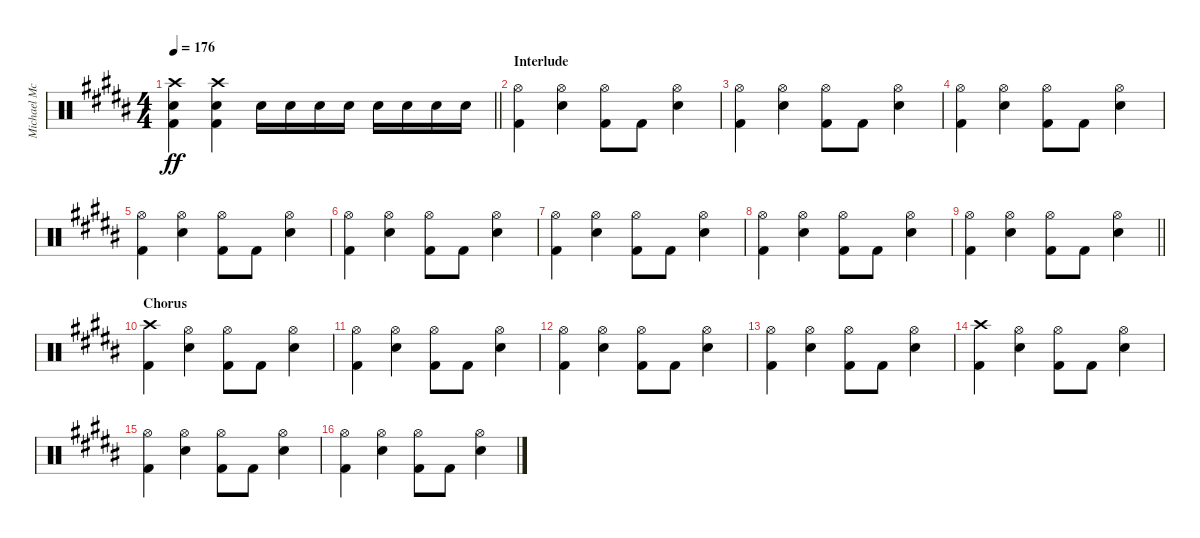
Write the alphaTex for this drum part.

\track ("Michael McDermott - Drums" "Michael Mc") {instrument percussion}
\staff {score}
\articulation defaults
\ts (4 4)
\tempo 176
\clef neutral
\barLineRight lightlight
\ks b
("Crash high (hit)" "Snare (hit) 2" "Kick (hit) 2").4{dy ff} ("Crash high (hit)" "Snare (hit) 2" "Kick (hit) 2").4 "Snare (hit) 2".16 "Snare (hit) 2".16 "Snare (hit) 2".16 "Snare (hit) 2".16 "Snare (hit) 2".16 "Snare (hit) 2".16 "Snare (hit) 2".16 "Snare (hit) 2".16 |
\section ("" "Interlude")
("Hi-Hat (open)" "Kick (hit) 2").4 ("Snare (hit) 2" "Hi-Hat (open)").4 ("Hi-Hat (open)" "Kick (hit) 2").8 "Kick (hit) 2".8 ("Snare (hit) 2" "Hi-Hat (open)").4 |
("Hi-Hat (open)" "Kick (hit) 2").4 ("Snare (hit) 2" "Hi-Hat (open)").4 ("Hi-Hat (open)" "Kick (hit) 2").8 "Kick (hit) 2".8 ("Snare (hit) 2" "Hi-Hat (open)").4 |
("Hi-Hat (open)" "Kick (hit) 2").4 ("Snare (hit) 2" "Hi-Hat (open)").4 ("Hi-Hat (open)" "Kick (hit) 2").8 "Kick (hit) 2".8 ("Snare (hit) 2" "Hi-Hat (open)").4 |
("Hi-Hat (open)" "Kick (hit) 2").4 ("Snare (hit) 2" "Hi-Hat (open)").4 ("Hi-Hat (open)" "Kick (hit) 2").8 "Kick (hit) 2".8 ("Snare (hit) 2" "Hi-Hat (open)").4 |
("Hi-Hat (open)" "Kick (hit) 2").4 ("Snare (hit) 2" "Hi-Hat (open)").4 ("Hi-Hat (open)" "Kick (hit) 2").8 "Kick (hit) 2".8 ("Snare (hit) 2" "Hi-Hat (open)").4 |
("Hi-Hat (open)" "Kick (hit) 2").4 ("Snare (hit) 2" "Hi-Hat (open)").4 ("Hi-Hat (open)" "Kick (hit) 2").8 "Kick (hit) 2".8 ("Snare (hit) 2" "Hi-Hat (open)").4 |
("Hi-Hat (open)" "Kick (hit) 2").4 ("Snare (hit) 2" "Hi-Hat (open)").4 ("Hi-Hat (open)" "Kick (hit) 2").8 "Kick (hit) 2".8 ("Snare (hit) 2" "Hi-Hat (open)").4 |
\barLineRight lightlight
("Hi-Hat (open)" "Kick (hit) 2").4 ("Snare (hit) 2" "Hi-Hat (open)").4 ("Hi-Hat (open)" "Kick (hit) 2").8 "Kick (hit) 2".8 ("Snare (hit) 2" "Hi-Hat (open)").4 |
\section ("" "Chorus")
("Kick (hit) 2" "Crash high (hit)").4 ("Snare (hit) 2" "Hi-Hat (open)").4 ("Hi-Hat (open)" "Kick (hit) 2").8 "Kick (hit) 2".8 ("Snare (hit) 2" "Hi-Hat (open)").4 |
("Hi-Hat (open)" "Kick (hit) 2").4 ("Snare (hit) 2" "Hi-Hat (open)").4 ("Hi-Hat (open)" "Kick (hit) 2").8 "Kick (hit) 2".8 ("Snare (hit) 2" "Hi-Hat (open)").4 |
("Hi-Hat (open)" "Kick (hit) 2").4 ("Snare (hit) 2" "Hi-Hat (open)").4 ("Hi-Hat (open)" "Kick (hit) 2").8 "Kick (hit) 2".8 ("Snare (hit) 2" "Hi-Hat (open)").4 |
("Hi-Hat (open)" "Kick (hit) 2").4 ("Snare (hit) 2" "Hi-Hat (open)").4 ("Hi-Hat (open)" "Kick (hit) 2").8 "Kick (hit) 2".8 ("Snare (hit) 2" "Hi-Hat (open)").4 |
("Kick (hit) 2" "Crash high (hit)").4 ("Snare (hit) 2" "Hi-Hat (open)").4 ("Hi-Hat (open)" "Kick (hit) 2").8 "Kick (hit) 2".8 ("Snare (hit) 2" "Hi-Hat (open)").4 |
("Hi-Hat (open)" "Kick (hit) 2").4 ("Snare (hit) 2" "Hi-Hat (open)").4 ("Hi-Hat (open)" "Kick (hit) 2").8 "Kick (hit) 2".8 ("Snare (hit) 2" "Hi-Hat (open)").4 |
("Hi-Hat (open)" "Kick (hit) 2").4 ("Snare (hit) 2" "Hi-Hat (open)").4 ("Hi-Hat (open)" "Kick (hit) 2").8 "Kick (hit) 2".8 ("Snare (hit) 2" "Hi-Hat (open)").4
